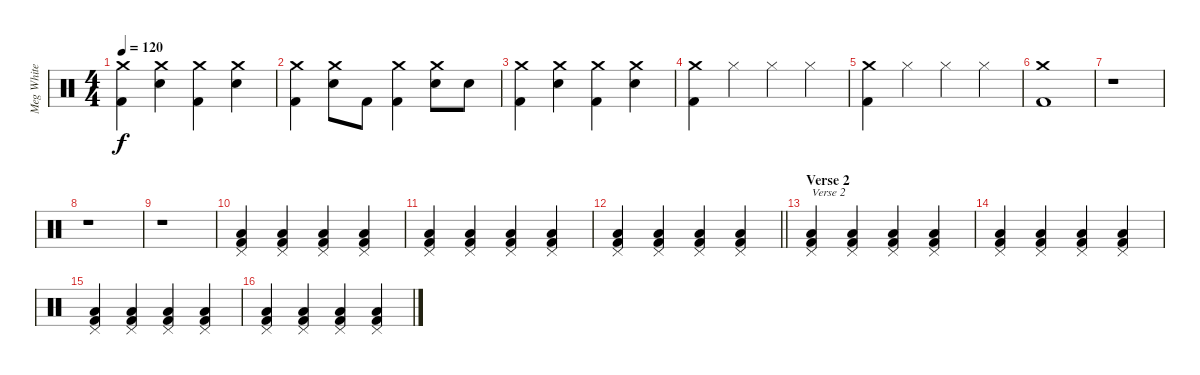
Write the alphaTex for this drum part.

\track ("Meg White" "Meg White") {instrument percussion}
\staff {score}
\articulation defaults
\ts (4 4)
\tempo 120
\clef neutral
\ks c
("Crash medium (hit)" "Kick (hit) 2").4{dy f} ("Crash medium (hit)" "Snare (hit) 2").4 ("Crash medium (hit)" "Kick (hit) 2").4 ("Crash medium (hit)" "Snare (hit) 2").4 |
("Crash medium (hit)" "Kick (hit) 2").4 ("Crash medium (hit)" "Snare (hit) 2").8 "Kick (hit) 2".8 ("Crash medium (hit)" "Kick (hit) 2").4 ("Crash medium (hit)" "Snare (hit) 2").8 "Snare (hit) 2".8 |
("Crash medium (hit)" "Kick (hit) 2").4 ("Crash medium (hit)" "Snare (hit) 2").4 ("Crash medium (hit)" "Kick (hit) 2").4 ("Crash medium (hit)" "Snare (hit) 2").4 |
("Crash medium (hit)" "Kick (hit) 2").4 "Hi-Hat (closed)".4 "Hi-Hat (closed)".4 "Hi-Hat (closed)".4 |
("Crash medium (hit)" "Kick (hit) 2").4 "Hi-Hat (closed)".4 "Hi-Hat (closed)".4 "Hi-Hat (closed)".4 |
("Crash medium (hit)" "Kick (hit) 2").1 |
r.1 |
r.1 |
r.1 |
("Pedal Hi-Hat (hit)" "Low Floor Tom (hit)" "Kick (hit) 2").4 ("Pedal Hi-Hat (hit)" "Low Floor Tom (hit)" "Kick (hit) 2").4 ("Pedal Hi-Hat (hit)" "Low Floor Tom (hit)" "Kick (hit) 2").4 ("Pedal Hi-Hat (hit)" "Low Floor Tom (hit)" "Kick (hit) 2").4 |
("Pedal Hi-Hat (hit)" "Low Floor Tom (hit)" "Kick (hit) 2").4 ("Pedal Hi-Hat (hit)" "Low Floor Tom (hit)" "Kick (hit) 2").4 ("Pedal Hi-Hat (hit)" "Low Floor Tom (hit)" "Kick (hit) 2").4 ("Pedal Hi-Hat (hit)" "Low Floor Tom (hit)" "Kick (hit) 2").4 |
\barLineRight lightlight
("Pedal Hi-Hat (hit)" "Low Floor Tom (hit)" "Kick (hit) 2").4 ("Pedal Hi-Hat (hit)" "Low Floor Tom (hit)" "Kick (hit) 2").4 ("Pedal Hi-Hat (hit)" "Low Floor Tom (hit)" "Kick (hit) 2").4 ("Pedal Hi-Hat (hit)" "Low Floor Tom (hit)" "Kick (hit) 2").4 |
\section ("" "Verse 2")
("Pedal Hi-Hat (hit)" "Low Floor Tom (hit)" "Kick (hit) 2").4{txt "Verse 2"} ("Pedal Hi-Hat (hit)" "Low Floor Tom (hit)" "Kick (hit) 2").4 ("Pedal Hi-Hat (hit)" "Low Floor Tom (hit)" "Kick (hit) 2").4 ("Pedal Hi-Hat (hit)" "Low Floor Tom (hit)" "Kick (hit) 2").4 |
("Pedal Hi-Hat (hit)" "Low Floor Tom (hit)" "Kick (hit) 2").4 ("Pedal Hi-Hat (hit)" "Low Floor Tom (hit)" "Kick (hit) 2").4 ("Pedal Hi-Hat (hit)" "Low Floor Tom (hit)" "Kick (hit) 2").4 ("Pedal Hi-Hat (hit)" "Low Floor Tom (hit)" "Kick (hit) 2").4 |
("Pedal Hi-Hat (hit)" "Low Floor Tom (hit)" "Kick (hit) 2").4 ("Pedal Hi-Hat (hit)" "Low Floor Tom (hit)" "Kick (hit) 2").4 ("Pedal Hi-Hat (hit)" "Low Floor Tom (hit)" "Kick (hit) 2").4 ("Pedal Hi-Hat (hit)" "Low Floor Tom (hit)" "Kick (hit) 2").4 |
("Pedal Hi-Hat (hit)" "Low Floor Tom (hit)" "Kick (hit) 2").4 ("Pedal Hi-Hat (hit)" "Low Floor Tom (hit)" "Kick (hit) 2").4 ("Pedal Hi-Hat (hit)" "Low Floor Tom (hit)" "Kick (hit) 2").4 ("Pedal Hi-Hat (hit)" "Low Floor Tom (hit)" "Kick (hit) 2").4
